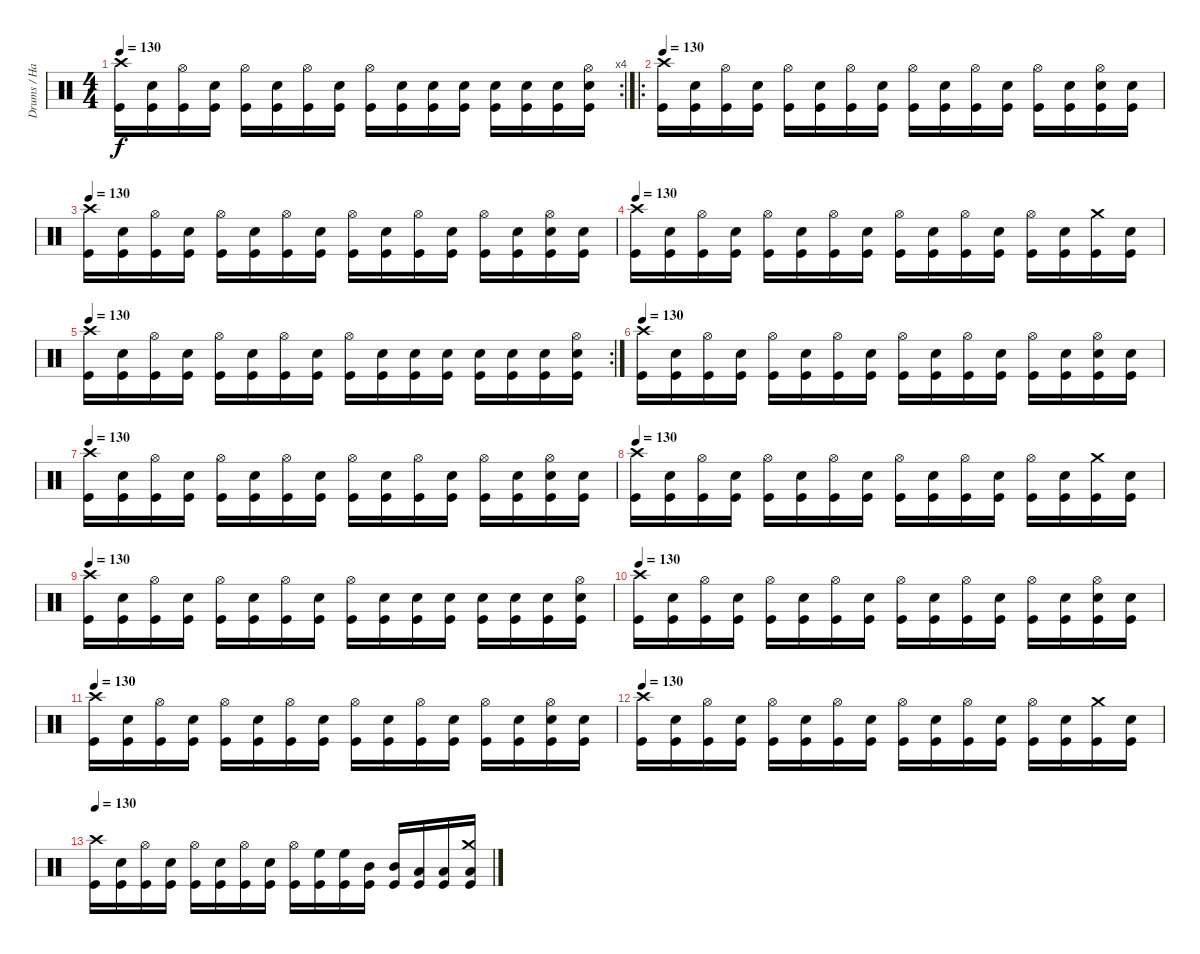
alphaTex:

\track ("Drums / Hammer of God" "Drums / Ha") {instrument percussion}
\staff {score}
\articulation defaults
\rc 4
\ts (4 4)
\tempo 130
\clef neutral
\ks c
("Crash high (hit)" "Kick (hit)").16{dy f} ("Snare (hit) 2" "Kick (hit)").16 ("Hi-Hat (open)" "Kick (hit)").16 ("Snare (hit) 2" "Kick (hit)").16 ("Hi-Hat (open)" "Kick (hit)").16 ("Snare (hit) 2" "Kick (hit)").16 ("Hi-Hat (open)" "Kick (hit)").16 ("Snare (hit) 2" "Kick (hit)").16 ("Hi-Hat (open)" "Kick (hit)").16 ("Snare (hit) 2" "Kick (hit)").16 ("Snare (hit) 2" "Kick (hit)").16 ("Snare (hit) 2" "Kick (hit)").16 ("Snare (hit) 2" "Kick (hit)").16 ("Snare (hit) 2" "Kick (hit)").16 ("Snare (hit) 2" "Kick (hit)").16 ("Hi-Hat (open)" "Snare (hit) 2" "Kick (hit)").16 |
\ro
\tempo 130
("Crash high (hit)" "Kick (hit)").16 ("Snare (hit) 2" "Kick (hit)").16 ("Hi-Hat (open)" "Kick (hit)").16 ("Snare (hit) 2" "Kick (hit)").16 ("Hi-Hat (open)" "Kick (hit)").16 ("Snare (hit) 2" "Kick (hit)").16 ("Hi-Hat (open)" "Kick (hit)").16 ("Snare (hit) 2" "Kick (hit)").16 ("Hi-Hat (open)" "Kick (hit)").16 ("Snare (hit) 2" "Kick (hit)").16 ("Hi-Hat (open)" "Kick (hit)").16 ("Snare (hit) 2" "Kick (hit)").16 ("Hi-Hat (open)" "Kick (hit)").16 ("Snare (hit) 2" "Kick (hit)").16 ("Hi-Hat (open)" "Snare (hit) 2" "Kick (hit)").16 ("Snare (hit) 2" "Kick (hit)").16 |
\tempo 130
("Crash high (hit)" "Kick (hit)").16 ("Snare (hit) 2" "Kick (hit)").16 ("Hi-Hat (open)" "Kick (hit)").16 ("Snare (hit) 2" "Kick (hit)").16 ("Hi-Hat (open)" "Kick (hit)").16 ("Snare (hit) 2" "Kick (hit)").16 ("Hi-Hat (open)" "Kick (hit)").16 ("Snare (hit) 2" "Kick (hit)").16 ("Hi-Hat (open)" "Kick (hit)").16 ("Snare (hit) 2" "Kick (hit)").16 ("Hi-Hat (open)" "Kick (hit)").16 ("Snare (hit) 2" "Kick (hit)").16 ("Hi-Hat (open)" "Kick (hit)").16 ("Snare (hit) 2" "Kick (hit)").16 ("Hi-Hat (open)" "Snare (hit) 2" "Kick (hit)").16 ("Snare (hit) 2" "Kick (hit)").16 |
\tempo 130
("Crash high (hit)" "Kick (hit)").16 ("Snare (hit) 2" "Kick (hit)").16 ("Hi-Hat (open)" "Kick (hit)").16 ("Snare (hit) 2" "Kick (hit)").16 ("Hi-Hat (open)" "Kick (hit)").16 ("Snare (hit) 2" "Kick (hit)").16 ("Hi-Hat (open)" "Kick (hit)").16 ("Snare (hit) 2" "Kick (hit)").16 ("Hi-Hat (open)" "Kick (hit)").16 ("Snare (hit) 2" "Kick (hit)").16 ("Hi-Hat (open)" "Kick (hit)").16 ("Snare (hit) 2" "Kick (hit)").16 ("Hi-Hat (open)" "Kick (hit)").16 ("Snare (hit) 2" "Kick (hit)").16 ("Crash medium (hit)" "Kick (hit)").16 ("Snare (hit) 2" "Kick (hit)").16 |
\rc 2
\tempo 130
("Crash high (hit)" "Kick (hit)").16 ("Snare (hit) 2" "Kick (hit)").16 ("Hi-Hat (open)" "Kick (hit)").16 ("Snare (hit) 2" "Kick (hit)").16 ("Hi-Hat (open)" "Kick (hit)").16 ("Snare (hit) 2" "Kick (hit)").16 ("Hi-Hat (open)" "Kick (hit)").16 ("Snare (hit) 2" "Kick (hit)").16 ("Hi-Hat (open)" "Kick (hit)").16 ("Snare (hit) 2" "Kick (hit)").16 ("Snare (hit) 2" "Kick (hit)").16 ("Snare (hit) 2" "Kick (hit)").16 ("Snare (hit) 2" "Kick (hit)").16 ("Snare (hit) 2" "Kick (hit)").16 ("Snare (hit) 2" "Kick (hit)").16 ("Hi-Hat (open)" "Snare (hit) 2" "Kick (hit)").16 |
\tempo 130
("Crash high (hit)" "Kick (hit)").16 ("Snare (hit) 2" "Kick (hit)").16 ("Hi-Hat (open)" "Kick (hit)").16 ("Snare (hit) 2" "Kick (hit)").16 ("Hi-Hat (open)" "Kick (hit)").16 ("Snare (hit) 2" "Kick (hit)").16 ("Hi-Hat (open)" "Kick (hit)").16 ("Snare (hit) 2" "Kick (hit)").16 ("Hi-Hat (open)" "Kick (hit)").16 ("Snare (hit) 2" "Kick (hit)").16 ("Hi-Hat (open)" "Kick (hit)").16 ("Snare (hit) 2" "Kick (hit)").16 ("Hi-Hat (open)" "Kick (hit)").16 ("Snare (hit) 2" "Kick (hit)").16 ("Hi-Hat (open)" "Snare (hit) 2" "Kick (hit)").16 ("Snare (hit) 2" "Kick (hit)").16 |
\tempo 130
("Crash high (hit)" "Kick (hit)").16 ("Snare (hit) 2" "Kick (hit)").16 ("Hi-Hat (open)" "Kick (hit)").16 ("Snare (hit) 2" "Kick (hit)").16 ("Hi-Hat (open)" "Kick (hit)").16 ("Snare (hit) 2" "Kick (hit)").16 ("Hi-Hat (open)" "Kick (hit)").16 ("Snare (hit) 2" "Kick (hit)").16 ("Hi-Hat (open)" "Kick (hit)").16 ("Snare (hit) 2" "Kick (hit)").16 ("Hi-Hat (open)" "Kick (hit)").16 ("Snare (hit) 2" "Kick (hit)").16 ("Hi-Hat (open)" "Kick (hit)").16 ("Snare (hit) 2" "Kick (hit)").16 ("Hi-Hat (open)" "Snare (hit) 2" "Kick (hit)").16 ("Snare (hit) 2" "Kick (hit)").16 |
\tempo 130
("Crash high (hit)" "Kick (hit)").16 ("Snare (hit) 2" "Kick (hit)").16 ("Hi-Hat (open)" "Kick (hit)").16 ("Snare (hit) 2" "Kick (hit)").16 ("Hi-Hat (open)" "Kick (hit)").16 ("Snare (hit) 2" "Kick (hit)").16 ("Hi-Hat (open)" "Kick (hit)").16 ("Snare (hit) 2" "Kick (hit)").16 ("Hi-Hat (open)" "Kick (hit)").16 ("Snare (hit) 2" "Kick (hit)").16 ("Hi-Hat (open)" "Kick (hit)").16 ("Snare (hit) 2" "Kick (hit)").16 ("Hi-Hat (open)" "Kick (hit)").16 ("Snare (hit) 2" "Kick (hit)").16 ("Crash medium (hit)" "Kick (hit)").16 ("Snare (hit) 2" "Kick (hit)").16 |
\tempo 130
("Crash high (hit)" "Kick (hit)").16 ("Snare (hit) 2" "Kick (hit)").16 ("Hi-Hat (open)" "Kick (hit)").16 ("Snare (hit) 2" "Kick (hit)").16 ("Hi-Hat (open)" "Kick (hit)").16 ("Snare (hit) 2" "Kick (hit)").16 ("Hi-Hat (open)" "Kick (hit)").16 ("Snare (hit) 2" "Kick (hit)").16 ("Hi-Hat (open)" "Kick (hit)").16 ("Snare (hit) 2" "Kick (hit)").16 ("Snare (hit) 2" "Kick (hit)").16 ("Snare (hit) 2" "Kick (hit)").16 ("Snare (hit) 2" "Kick (hit)").16 ("Snare (hit) 2" "Kick (hit)").16 ("Snare (hit) 2" "Kick (hit)").16 ("Hi-Hat (open)" "Snare (hit) 2" "Kick (hit)").16 |
\tempo 130
("Crash high (hit)" "Kick (hit)").16 ("Snare (hit) 2" "Kick (hit)").16 ("Hi-Hat (open)" "Kick (hit)").16 ("Snare (hit) 2" "Kick (hit)").16 ("Hi-Hat (open)" "Kick (hit)").16 ("Snare (hit) 2" "Kick (hit)").16 ("Hi-Hat (open)" "Kick (hit)").16 ("Snare (hit) 2" "Kick (hit)").16 ("Hi-Hat (open)" "Kick (hit)").16 ("Snare (hit) 2" "Kick (hit)").16 ("Hi-Hat (open)" "Kick (hit)").16 ("Snare (hit) 2" "Kick (hit)").16 ("Hi-Hat (open)" "Kick (hit)").16 ("Snare (hit) 2" "Kick (hit)").16 ("Hi-Hat (open)" "Snare (hit) 2" "Kick (hit)").16 ("Snare (hit) 2" "Kick (hit)").16 |
\tempo 130
("Crash high (hit)" "Kick (hit)").16 ("Snare (hit) 2" "Kick (hit)").16 ("Hi-Hat (open)" "Kick (hit)").16 ("Snare (hit) 2" "Kick (hit)").16 ("Hi-Hat (open)" "Kick (hit)").16 ("Snare (hit) 2" "Kick (hit)").16 ("Hi-Hat (open)" "Kick (hit)").16 ("Snare (hit) 2" "Kick (hit)").16 ("Hi-Hat (open)" "Kick (hit)").16 ("Snare (hit) 2" "Kick (hit)").16 ("Hi-Hat (open)" "Kick (hit)").16 ("Snare (hit) 2" "Kick (hit)").16 ("Hi-Hat (open)" "Kick (hit)").16 ("Snare (hit) 2" "Kick (hit)").16 ("Hi-Hat (open)" "Snare (hit) 2" "Kick (hit)").16 ("Snare (hit) 2" "Kick (hit)").16 |
\tempo 130
("Crash high (hit)" "Kick (hit)").16 ("Snare (hit) 2" "Kick (hit)").16 ("Hi-Hat (open)" "Kick (hit)").16 ("Snare (hit) 2" "Kick (hit)").16 ("Hi-Hat (open)" "Kick (hit)").16 ("Snare (hit) 2" "Kick (hit)").16 ("Hi-Hat (open)" "Kick (hit)").16 ("Snare (hit) 2" "Kick (hit)").16 ("Hi-Hat (open)" "Kick (hit)").16 ("Snare (hit) 2" "Kick (hit)").16 ("Hi-Hat (open)" "Kick (hit)").16 ("Snare (hit) 2" "Kick (hit)").16 ("Hi-Hat (open)" "Kick (hit)").16 ("Snare (hit) 2" "Kick (hit)").16 ("Crash medium (hit)" "Kick (hit)").16 ("Snare (hit) 2" "Kick (hit)").16 |
\tempo 130
("Crash high (hit)" "Kick (hit)").16 ("Snare (hit) 2" "Kick (hit)").16 ("Hi-Hat (open)" "Kick (hit)").16 ("Snare (hit) 2" "Kick (hit)").16 ("Hi-Hat (open)" "Kick (hit)").16 ("Snare (hit) 2" "Kick (hit)").16 ("Hi-Hat (open)" "Kick (hit)").16 ("Snare (hit) 2" "Kick (hit)").16 ("Hi-Hat (open)" "Kick (hit)").16 ("High Floor Tom (hit)" "Kick (hit)").16 ("High Floor Tom (hit)" "Kick (hit)").16 ("Mid Tom (hit)" "Kick (hit)").16 ("Mid Tom (hit)" "Kick (hit)").16 ("Low Tom (hit)" "Kick (hit)").16 ("Low Tom (hit)" "Kick (hit)").16 ("Crash medium (hit)" "Low Floor Tom (hit)" "Kick (hit)").16
